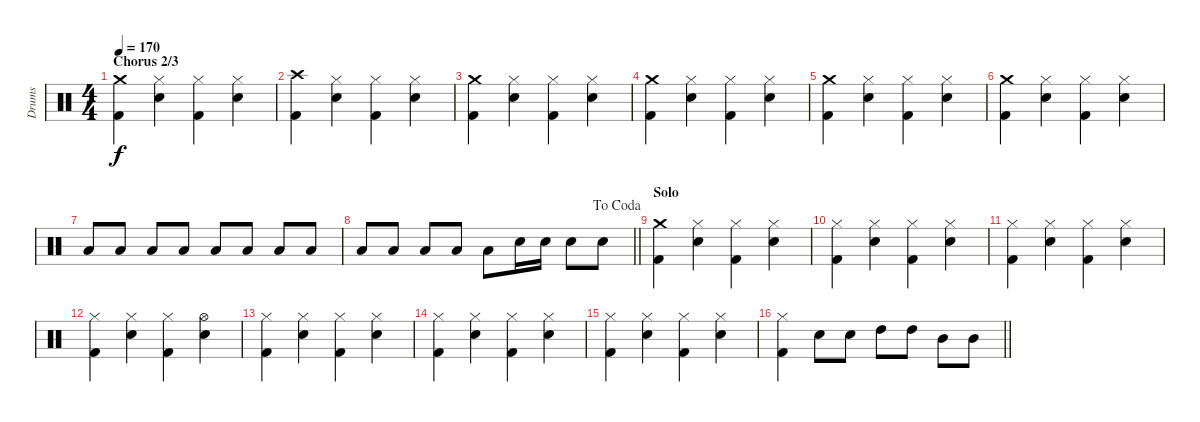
\track ("Drums" "Drums") {instrument percussion}
\staff {score}
\articulation defaults
\ts (4 4)
\section ("" "Chorus 2/3")
\tempo 170
\clef neutral
\ks c
("Crash medium (hit)" "Kick (hit) 2").4{dy f} ("Hi-Hat (closed)" "Electric Snare (hit)").4 ("Hi-Hat (closed)" "Kick (hit) 2").4 ("Hi-Hat (closed)" "Electric Snare (hit)").4 |
("Crash high (hit)" "Kick (hit) 2").4 ("Hi-Hat (closed)" "Electric Snare (hit)").4 ("Hi-Hat (closed)" "Kick (hit) 2").4 ("Hi-Hat (closed)" "Electric Snare (hit)").4 |
("Crash medium (hit)" "Kick (hit) 2").4 ("Hi-Hat (closed)" "Electric Snare (hit)").4 ("Hi-Hat (closed)" "Kick (hit) 2").4 ("Hi-Hat (closed)" "Electric Snare (hit)").4 |
("Crash medium (hit)" "Kick (hit) 2").4 ("Hi-Hat (closed)" "Electric Snare (hit)").4 ("Hi-Hat (closed)" "Kick (hit) 2").4 ("Hi-Hat (closed)" "Electric Snare (hit)").4 |
("Crash medium (hit)" "Kick (hit) 2").4 ("Hi-Hat (closed)" "Electric Snare (hit)").4 ("Hi-Hat (closed)" "Kick (hit) 2").4 ("Hi-Hat (closed)" "Electric Snare (hit)").4 |
("Crash medium (hit)" "Kick (hit) 2").4 ("Hi-Hat (closed)" "Electric Snare (hit)").4 ("Hi-Hat (closed)" "Kick (hit) 2").4 ("Hi-Hat (closed)" "Electric Snare (hit)").4 |
"Low Floor Tom (hit)".8 "Low Floor Tom (hit)".8 "Low Floor Tom (hit)".8 "Low Floor Tom (hit)".8 "Low Floor Tom (hit)".8 "Low Floor Tom (hit)".8 "Low Floor Tom (hit)".8 "Low Floor Tom (hit)".8 |
\jump dacoda
\barLineRight lightlight "Low Floor Tom (hit)".8 "Low Floor Tom (hit)".8 "Low Floor Tom (hit)".8 "Low Floor Tom (hit)".8 "Low Floor Tom (hit)".8 "Electric Snare (hit)".16 "Electric Snare (hit)".16 "Electric Snare (hit)".8 "Electric Snare (hit)".8
|
\section ("" "Solo")
("Crash medium (hit)" "Kick (hit) 2").4 ("Hi-Hat (closed)" "Electric Snare (hit)").4 ("Hi-Hat (closed)" "Kick (hit) 2").4 ("Hi-Hat (closed)" "Electric Snare (hit)").4 |
("Hi-Hat (closed)" "Kick (hit) 2").4 ("Hi-Hat (closed)" "Electric Snare (hit)").4 ("Hi-Hat (closed)" "Kick (hit) 2").4 ("Hi-Hat (closed)" "Electric Snare (hit)").4 |
("Hi-Hat (closed)" "Kick (hit) 2").4 ("Hi-Hat (closed)" "Electric Snare (hit)").4 ("Hi-Hat (closed)" "Kick (hit) 2").4 ("Hi-Hat (closed)" "Electric Snare (hit)").4 |
("Hi-Hat (closed)" "Kick (hit) 2").4 ("Hi-Hat (closed)" "Electric Snare (hit)").4 ("Hi-Hat (closed)" "Kick (hit) 2").4 ("Hi-Hat (open)" "Electric Snare (hit)").4 |
("Hi-Hat (closed)" "Kick (hit) 2").4 ("Hi-Hat (closed)" "Electric Snare (hit)").4 ("Hi-Hat (closed)" "Kick (hit) 2").4 ("Hi-Hat (closed)" "Electric Snare (hit)").4 |
("Hi-Hat (closed)" "Kick (hit) 2").4 ("Hi-Hat (closed)" "Electric Snare (hit)").4 ("Hi-Hat (closed)" "Kick (hit) 2").4 ("Hi-Hat (closed)" "Electric Snare (hit)").4 |
("Hi-Hat (closed)" "Kick (hit) 2").4 ("Hi-Hat (closed)" "Electric Snare (hit)").4 ("Hi-Hat (closed)" "Kick (hit) 2").4 ("Hi-Hat (closed)" "Electric Snare (hit)").4 |
\barLineRight lightlight
("Hi-Hat (closed)" "Kick (hit) 2").4 "Electric Snare (hit)".8 "Electric Snare (hit)".8 "High Tom (hit)".8 "High Tom (hit)".8 "Mid Tom (hit)".8 "Mid Tom (hit)".8
